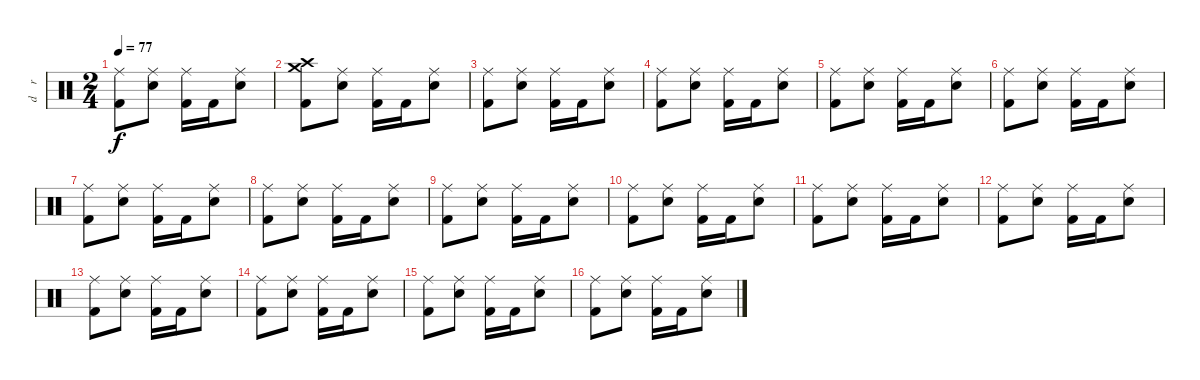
\track ("d    r     u    m    s" "d    r    ") {instrument percussion}
\staff {score}
\articulation defaults
\ts (2 4)
\tempo 77
\clef neutral
\ks c
("Ride (middle)" "Kick (hit) 2").8{dy f} ("Ride (middle)" "Electric Snare (hit)").8 ("Ride (middle)" "Kick (hit) 2").16 "Kick (hit) 2".16 ("Ride (middle)" "Electric Snare (hit)").8 |
("Crash high (hit)" "Crash medium (hit)" "Kick (hit) 2").8 ("Ride (middle)" "Electric Snare (hit)").8 ("Ride (middle)" "Kick (hit) 2").16 "Kick (hit) 2".16 ("Ride (middle)" "Electric Snare (hit)").8 |
("Ride (middle)" "Kick (hit) 2").8 ("Ride (middle)" "Electric Snare (hit)").8 ("Ride (middle)" "Kick (hit) 2").16 "Kick (hit) 2".16 ("Ride (middle)" "Electric Snare (hit)").8 |
("Ride (middle)" "Kick (hit) 2").8 ("Ride (middle)" "Electric Snare (hit)").8 ("Ride (middle)" "Kick (hit) 2").16 "Kick (hit) 2".16 ("Ride (middle)" "Electric Snare (hit)").8 |
("Ride (middle)" "Kick (hit) 2").8 ("Ride (middle)" "Electric Snare (hit)").8 ("Ride (middle)" "Kick (hit) 2").16 "Kick (hit) 2".16 ("Ride (middle)" "Electric Snare (hit)").8 |
("Ride (middle)" "Kick (hit) 2").8 ("Ride (middle)" "Electric Snare (hit)").8 ("Ride (middle)" "Kick (hit) 2").16 "Kick (hit) 2".16 ("Ride (middle)" "Electric Snare (hit)").8 |
("Ride (middle)" "Kick (hit) 2").8 ("Ride (middle)" "Electric Snare (hit)").8 ("Ride (middle)" "Kick (hit) 2").16 "Kick (hit) 2".16 ("Ride (middle)" "Electric Snare (hit)").8 |
("Ride (middle)" "Kick (hit) 2").8 ("Ride (middle)" "Electric Snare (hit)").8 ("Ride (middle)" "Kick (hit) 2").16 "Kick (hit) 2".16 ("Ride (middle)" "Electric Snare (hit)").8 |
("Ride (middle)" "Kick (hit) 2").8 ("Ride (middle)" "Electric Snare (hit)").8 ("Ride (middle)" "Kick (hit) 2").16 "Kick (hit) 2".16 ("Ride (middle)" "Electric Snare (hit)").8 |
("Ride (middle)" "Kick (hit) 2").8 ("Ride (middle)" "Electric Snare (hit)").8 ("Ride (middle)" "Kick (hit) 2").16 "Kick (hit) 2".16 ("Ride (middle)" "Electric Snare (hit)").8 |
("Ride (middle)" "Kick (hit) 2").8 ("Ride (middle)" "Electric Snare (hit)").8 ("Ride (middle)" "Kick (hit) 2").16 "Kick (hit) 2".16 ("Ride (middle)" "Electric Snare (hit)").8 |
("Ride (middle)" "Kick (hit) 2").8 ("Ride (middle)" "Electric Snare (hit)").8 ("Ride (middle)" "Kick (hit) 2").16 "Kick (hit) 2".16 ("Ride (middle)" "Electric Snare (hit)").8 |
("Ride (middle)" "Kick (hit) 2").8 ("Ride (middle)" "Electric Snare (hit)").8 ("Ride (middle)" "Kick (hit) 2").16 "Kick (hit) 2".16 ("Ride (middle)" "Electric Snare (hit)").8 |
("Ride (middle)" "Kick (hit) 2").8 ("Ride (middle)" "Electric Snare (hit)").8 ("Ride (middle)" "Kick (hit) 2").16 "Kick (hit) 2".16 ("Ride (middle)" "Electric Snare (hit)").8 |
("Ride (middle)" "Kick (hit) 2").8 ("Ride (middle)" "Electric Snare (hit)").8 ("Ride (middle)" "Kick (hit) 2").16 "Kick (hit) 2".16 ("Ride (middle)" "Electric Snare (hit)").8 |
("Ride (middle)" "Kick (hit) 2").8 ("Ride (middle)" "Electric Snare (hit)").8 ("Ride (middle)" "Kick (hit) 2").16 "Kick (hit) 2".16 ("Ride (middle)" "Electric Snare (hit)").8
